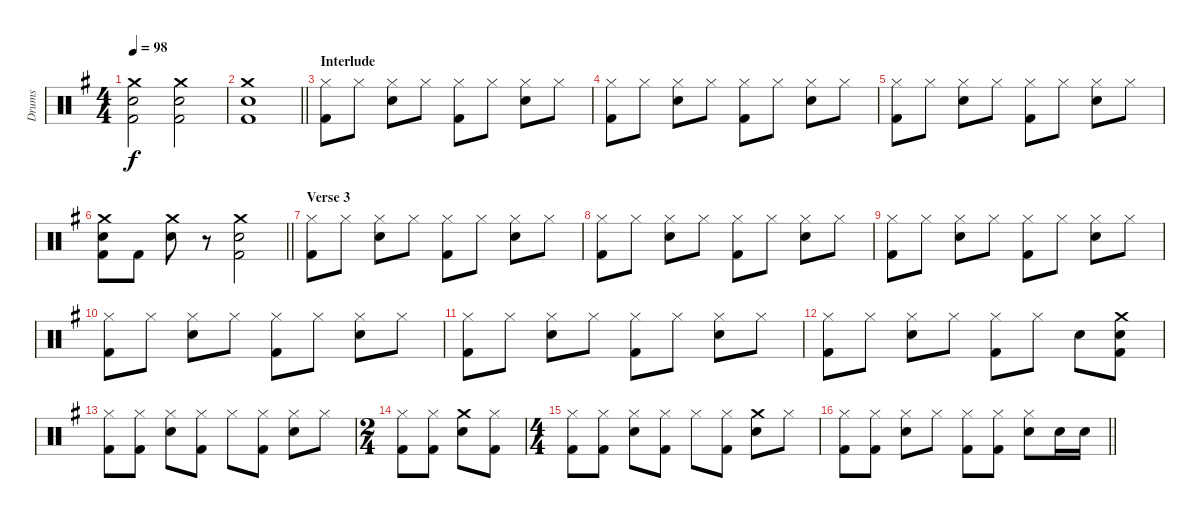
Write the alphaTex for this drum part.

\track ("Drums" "Drums") {instrument percussion}
\staff {score}
\articulation defaults
\ts (4 4)
\tempo 98
\clef neutral
\ks g
("Crash medium (hit)" "Electric Snare (hit)" "Kick (hit) 2").2{dy f} ("Crash medium (hit)" "Electric Snare (hit)" "Kick (hit) 2").2 |
\barLineRight lightlight
("Crash medium (hit)" "Electric Snare (hit)" "Kick (hit) 2").1 |
\section ("" "Interlude")
("Hi-Hat (closed)" "Kick (hit) 2").8 "Hi-Hat (closed)".8 ("Hi-Hat (closed)" "Electric Snare (hit)").8 "Hi-Hat (closed)".8 ("Hi-Hat (closed)" "Kick (hit) 2").8 "Hi-Hat (closed)".8 ("Hi-Hat (closed)" "Electric Snare (hit)").8 "Hi-Hat (closed)".8 |
("Hi-Hat (closed)" "Kick (hit) 2").8 "Hi-Hat (closed)".8 ("Hi-Hat (closed)" "Electric Snare (hit)").8 "Hi-Hat (closed)".8 ("Hi-Hat (closed)" "Kick (hit) 2").8 "Hi-Hat (closed)".8 ("Hi-Hat (closed)" "Electric Snare (hit)").8 "Hi-Hat (closed)".8 |
("Hi-Hat (closed)" "Kick (hit) 2").8 "Hi-Hat (closed)".8 ("Hi-Hat (closed)" "Electric Snare (hit)").8 "Hi-Hat (closed)".8 ("Hi-Hat (closed)" "Kick (hit) 2").8 "Hi-Hat (closed)".8 ("Hi-Hat (closed)" "Electric Snare (hit)").8 "Hi-Hat (closed)".8 |
\barLineRight lightlight
("Crash medium (hit)" "Electric Snare (hit)" "Kick (hit) 2").8 "Kick (hit) 2".8 ("Crash medium (hit)" "Electric Snare (hit)").8 r.8 ("Crash medium (hit)" "Electric Snare (hit)" "Kick (hit) 2").2 |
\section ("" "Verse 3")
("Hi-Hat (closed)" "Kick (hit) 2").8 "Hi-Hat (closed)".8 ("Hi-Hat (closed)" "Electric Snare (hit)").8 "Hi-Hat (closed)".8 ("Hi-Hat (closed)" "Kick (hit) 2").8 "Hi-Hat (closed)".8 ("Hi-Hat (closed)" "Electric Snare (hit)").8 "Hi-Hat (closed)".8 |
("Hi-Hat (closed)" "Kick (hit) 2").8 "Hi-Hat (closed)".8 ("Hi-Hat (closed)" "Electric Snare (hit)").8 "Hi-Hat (closed)".8 ("Hi-Hat (closed)" "Kick (hit) 2").8 "Hi-Hat (closed)".8 ("Hi-Hat (closed)" "Electric Snare (hit)").8 "Hi-Hat (closed)".8 |
("Hi-Hat (closed)" "Kick (hit) 2").8 "Hi-Hat (closed)".8 ("Hi-Hat (closed)" "Electric Snare (hit)").8 "Hi-Hat (closed)".8 ("Hi-Hat (closed)" "Kick (hit) 2").8 "Hi-Hat (closed)".8 ("Hi-Hat (closed)" "Electric Snare (hit)").8 "Hi-Hat (closed)".8 |
("Hi-Hat (closed)" "Kick (hit) 2").8 "Hi-Hat (closed)".8 ("Hi-Hat (closed)" "Electric Snare (hit)").8 "Hi-Hat (closed)".8 ("Hi-Hat (closed)" "Kick (hit) 2").8 "Hi-Hat (closed)".8 ("Hi-Hat (closed)" "Electric Snare (hit)").8 "Hi-Hat (closed)".8 |
("Hi-Hat (closed)" "Kick (hit) 2").8 "Hi-Hat (closed)".8 ("Hi-Hat (closed)" "Electric Snare (hit)").8 "Hi-Hat (closed)".8 ("Hi-Hat (closed)" "Kick (hit) 2").8 "Hi-Hat (closed)".8 ("Hi-Hat (closed)" "Electric Snare (hit)").8 "Hi-Hat (closed)".8 |
("Hi-Hat (closed)" "Kick (hit) 2").8 "Hi-Hat (closed)".8 ("Hi-Hat (closed)" "Electric Snare (hit)").8 "Hi-Hat (closed)".8 ("Hi-Hat (closed)" "Kick (hit) 2").8 "Hi-Hat (closed)".8 "Electric Snare (hit)".8 ("Crash medium (hit)" "Electric Snare (hit)" "Kick (hit) 2").8 |
("Hi-Hat (closed)" "Kick (hit) 2").8 ("Hi-Hat (closed)" "Kick (hit) 2").8 ("Hi-Hat (closed)" "Electric Snare (hit)").8 ("Hi-Hat (closed)" "Kick (hit) 2").8 "Hi-Hat (closed)".8 ("Hi-Hat (closed)" "Kick (hit) 2").8 ("Hi-Hat (closed)" "Electric Snare (hit)").8 "Hi-Hat (closed)".8 |
\ts (2 4)
("Hi-Hat (closed)" "Kick (hit) 2").8 ("Hi-Hat (closed)" "Kick (hit) 2").8 ("Crash medium (hit)" "Electric Snare (hit)").8 ("Hi-Hat (closed)" "Kick (hit) 2").8 |
\ts (4 4)
("Hi-Hat (closed)" "Kick (hit) 2").8 ("Hi-Hat (closed)" "Kick (hit) 2").8 ("Hi-Hat (closed)" "Electric Snare (hit)").8 ("Hi-Hat (closed)" "Kick (hit) 2").8 "Hi-Hat (closed)".8 ("Hi-Hat (closed)" "Kick (hit) 2").8 ("Crash medium (hit)" "Electric Snare (hit)").8 "Hi-Hat (closed)".8 |
\barLineRight lightlight
("Hi-Hat (closed)" "Kick (hit) 2").8 ("Hi-Hat (closed)" "Kick (hit) 2").8 ("Hi-Hat (closed)" "Electric Snare (hit)").8 "Hi-Hat (closed)".8 ("Hi-Hat (closed)" "Kick (hit) 2").8 ("Hi-Hat (closed)" "Kick (hit) 2").8 ("Hi-Hat (closed)" "Electric Snare (hit)").8 "Electric Snare (hit)".16 "Electric Snare (hit)".16
